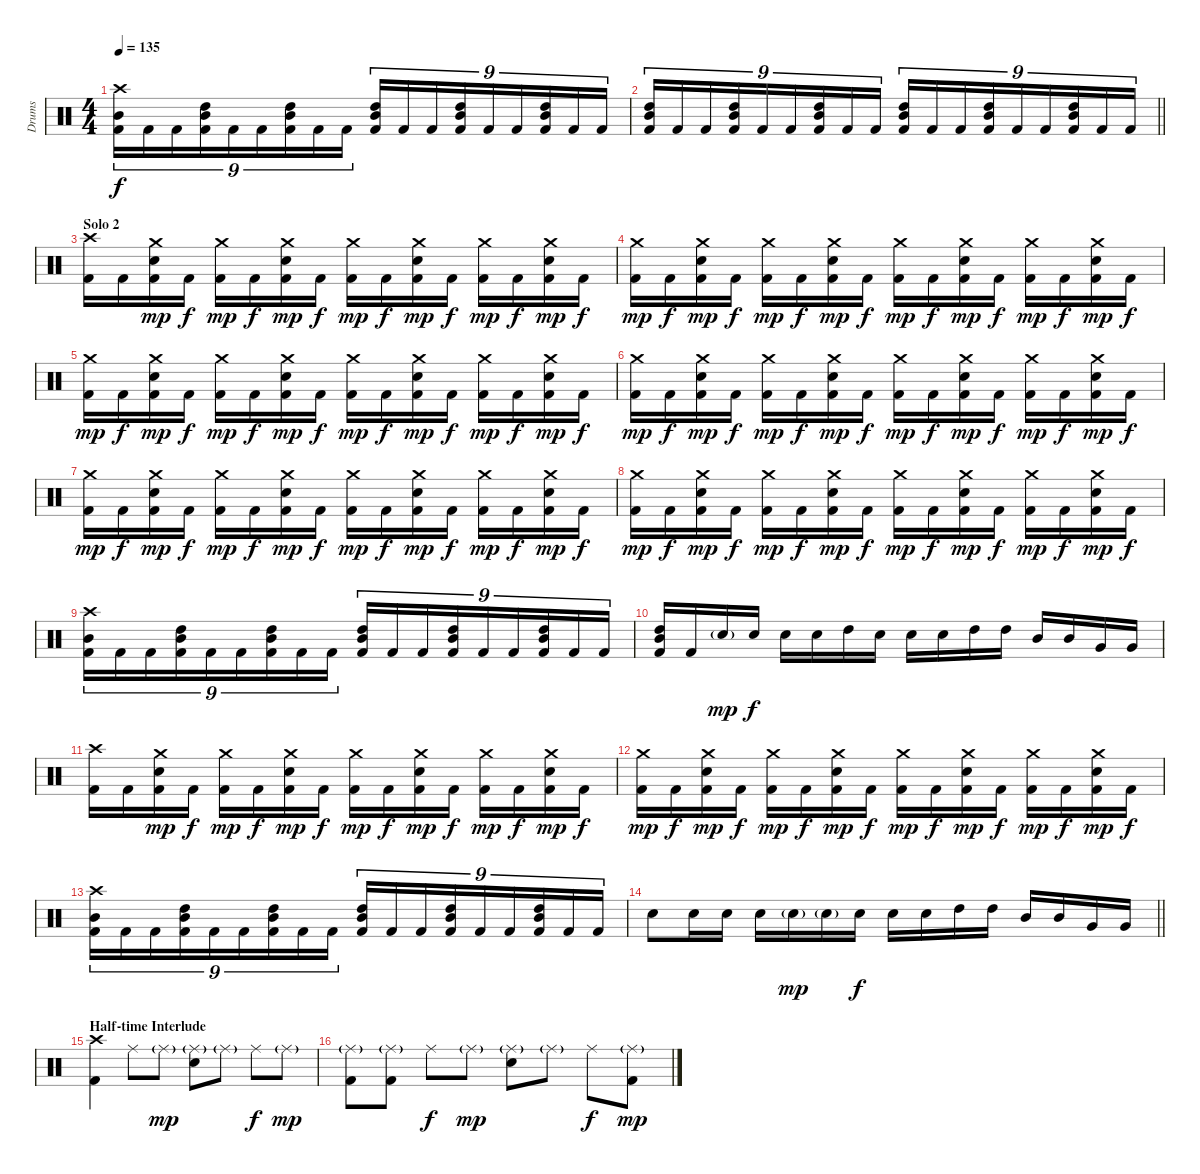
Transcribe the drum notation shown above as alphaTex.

\track ("Drums" "Drums") {instrument percussion}
\staff {score}
\articulation defaults
\ts (4 4)
\section ("" "")
\tempo 135
\clef neutral
\ks c
("Crash high (hit)" "Mid Tom (hit)" "Kick (hit) 2").16{tu (9 8) dy f} "Kick (hit) 2".16{tu (9 8)} "Kick (hit) 2".16{tu (9 8)} ("High Tom (hit)" "Mid Tom (hit)" "Kick (hit) 2").16{tu (9 8)} "Kick (hit) 2".16{tu (9 8)} "Kick (hit) 2".16{tu (9 8)} ("High Tom (hit)" "Mid Tom (hit)" "Kick (hit) 2").16{tu (9 8)} "Kick (hit) 2".16{tu (9 8)} "Kick (hit) 2".16{tu (9 8)} ("High Tom (hit)" "Mid Tom (hit)" "Kick (hit) 2").16{tu (9 8)} "Kick (hit) 2".16{tu (9 8)} "Kick (hit) 2".16{tu (9 8)} ("High Tom (hit)" "Mid Tom (hit)" "Kick (hit) 2").16{tu (9 8)} "Kick (hit) 2".16{tu (9 8)} "Kick (hit) 2".16{tu (9 8)} ("High Tom (hit)" "Mid Tom (hit)" "Kick (hit) 2").16{tu (9 8)} "Kick (hit) 2".16{tu (9 8)} "Kick (hit) 2".16{tu (9 8)} |
\barLineRight lightlight
("High Tom (hit)" "Mid Tom (hit)" "Kick (hit) 2").16{tu (9 8)} "Kick (hit) 2".16{tu (9 8)} "Kick (hit) 2".16{tu (9 8)} ("High Tom (hit)" "Mid Tom (hit)" "Kick (hit) 2").16{tu (9 8)} "Kick (hit) 2".16{tu (9 8)} "Kick (hit) 2".16{tu (9 8)} ("High Tom (hit)" "Mid Tom (hit)" "Kick (hit) 2").16{tu (9 8)} "Kick (hit) 2".16{tu (9 8)} "Kick (hit) 2".16{tu (9 8)} ("High Tom (hit)" "Mid Tom (hit)" "Kick (hit) 2").16{tu (9 8)} "Kick (hit) 2".16{tu (9 8)} "Kick (hit) 2".16{tu (9 8)} ("High Tom (hit)" "Mid Tom (hit)" "Kick (hit) 2").16{tu (9 8)} "Kick (hit) 2".16{tu (9 8)} "Kick (hit) 2".16{tu (9 8)} ("High Tom (hit)" "Mid Tom (hit)" "Kick (hit) 2").16{tu (9 8)} "Kick (hit) 2".16{tu (9 8)} "Kick (hit) 2".16{tu (9 8)} |
\section ("" "Solo 2")
("Crash high (hit)" "Kick (hit) 2").16 "Kick (hit) 2".16 ("Crash medium (hit)" "Snare (hit) 2" "Kick (hit) 2").16{dy mp} "Kick (hit) 2".16{dy f} ("Crash medium (hit)" "Kick (hit) 2").16{dy mp} "Kick (hit) 2".16{dy f} ("Crash medium (hit)" "Snare (hit) 2" "Kick (hit) 2").16{dy mp} "Kick (hit) 2".16{dy f} ("Crash medium (hit)" "Kick (hit) 2").16{dy mp} "Kick (hit) 2".16{dy f} ("Crash medium (hit)" "Snare (hit) 2" "Kick (hit) 2").16{dy mp} "Kick (hit) 2".16{dy f} ("Crash medium (hit)" "Kick (hit) 2").16{dy mp} "Kick (hit) 2".16{dy f} ("Crash medium (hit)" "Snare (hit) 2" "Kick (hit) 2").16{dy mp} "Kick (hit) 2".16{dy f} |
("Crash medium (hit)" "Kick (hit) 2").16{dy mp} "Kick (hit) 2".16{dy f} ("Crash medium (hit)" "Snare (hit) 2" "Kick (hit) 2").16{dy mp} "Kick (hit) 2".16{dy f} ("Crash medium (hit)" "Kick (hit) 2").16{dy mp} "Kick (hit) 2".16{dy f} ("Crash medium (hit)" "Snare (hit) 2" "Kick (hit) 2").16{dy mp} "Kick (hit) 2".16{dy f} ("Crash medium (hit)" "Kick (hit) 2").16{dy mp} "Kick (hit) 2".16{dy f} ("Crash medium (hit)" "Snare (hit) 2" "Kick (hit) 2").16{dy mp} "Kick (hit) 2".16{dy f} ("Crash medium (hit)" "Kick (hit) 2").16{dy mp} "Kick (hit) 2".16{dy f} ("Crash medium (hit)" "Snare (hit) 2" "Kick (hit) 2").16{dy mp} "Kick (hit) 2".16{dy f} |
("Crash medium (hit)" "Kick (hit) 2").16{dy mp} "Kick (hit) 2".16{dy f} ("Crash medium (hit)" "Snare (hit) 2" "Kick (hit) 2").16{dy mp} "Kick (hit) 2".16{dy f} ("Crash medium (hit)" "Kick (hit) 2").16{dy mp} "Kick (hit) 2".16{dy f} ("Crash medium (hit)" "Snare (hit) 2" "Kick (hit) 2").16{dy mp} "Kick (hit) 2".16{dy f} ("Crash medium (hit)" "Kick (hit) 2").16{dy mp} "Kick (hit) 2".16{dy f} ("Crash medium (hit)" "Snare (hit) 2" "Kick (hit) 2").16{dy mp} "Kick (hit) 2".16{dy f} ("Crash medium (hit)" "Kick (hit) 2").16{dy mp} "Kick (hit) 2".16{dy f} ("Crash medium (hit)" "Snare (hit) 2" "Kick (hit) 2").16{dy mp} "Kick (hit) 2".16{dy f} |
("Crash medium (hit)" "Kick (hit) 2").16{dy mp} "Kick (hit) 2".16{dy f} ("Crash medium (hit)" "Snare (hit) 2" "Kick (hit) 2").16{dy mp} "Kick (hit) 2".16{dy f} ("Crash medium (hit)" "Kick (hit) 2").16{dy mp} "Kick (hit) 2".16{dy f} ("Crash medium (hit)" "Snare (hit) 2" "Kick (hit) 2").16{dy mp} "Kick (hit) 2".16{dy f} ("Crash medium (hit)" "Kick (hit) 2").16{dy mp} "Kick (hit) 2".16{dy f} ("Crash medium (hit)" "Snare (hit) 2" "Kick (hit) 2").16{dy mp} "Kick (hit) 2".16{dy f} ("Crash medium (hit)" "Kick (hit) 2").16{dy mp} "Kick (hit) 2".16{dy f} ("Crash medium (hit)" "Snare (hit) 2" "Kick (hit) 2").16{dy mp} "Kick (hit) 2".16{dy f} |
("Crash medium (hit)" "Kick (hit) 2").16{dy mp} "Kick (hit) 2".16{dy f} ("Crash medium (hit)" "Snare (hit) 2" "Kick (hit) 2").16{dy mp} "Kick (hit) 2".16{dy f} ("Crash medium (hit)" "Kick (hit) 2").16{dy mp} "Kick (hit) 2".16{dy f} ("Crash medium (hit)" "Snare (hit) 2" "Kick (hit) 2").16{dy mp} "Kick (hit) 2".16{dy f} ("Crash medium (hit)" "Kick (hit) 2").16{dy mp} "Kick (hit) 2".16{dy f} ("Crash medium (hit)" "Snare (hit) 2" "Kick (hit) 2").16{dy mp} "Kick (hit) 2".16{dy f} ("Crash medium (hit)" "Kick (hit) 2").16{dy mp} "Kick (hit) 2".16{dy f} ("Crash medium (hit)" "Snare (hit) 2" "Kick (hit) 2").16{dy mp} "Kick (hit) 2".16{dy f} |
("Crash medium (hit)" "Kick (hit) 2").16{dy mp} "Kick (hit) 2".16{dy f} ("Crash medium (hit)" "Snare (hit) 2" "Kick (hit) 2").16{dy mp} "Kick (hit) 2".16{dy f} ("Crash medium (hit)" "Kick (hit) 2").16{dy mp} "Kick (hit) 2".16{dy f} ("Crash medium (hit)" "Snare (hit) 2" "Kick (hit) 2").16{dy mp} "Kick (hit) 2".16{dy f} ("Crash medium (hit)" "Kick (hit) 2").16{dy mp} "Kick (hit) 2".16{dy f} ("Crash medium (hit)" "Snare (hit) 2" "Kick (hit) 2").16{dy mp} "Kick (hit) 2".16{dy f} ("Crash medium (hit)" "Kick (hit) 2").16{dy mp} "Kick (hit) 2".16{dy f} ("Crash medium (hit)" "Snare (hit) 2" "Kick (hit) 2").16{dy mp} "Kick (hit) 2".16{dy f} |
("Crash high (hit)" "Mid Tom (hit)" "Kick (hit) 2").16{tu (9 8)} "Kick (hit) 2".16{tu (9 8)} "Kick (hit) 2".16{tu (9 8)} ("High Tom (hit)" "Mid Tom (hit)" "Kick (hit) 2").16{tu (9 8)} "Kick (hit) 2".16{tu (9 8)} "Kick (hit) 2".16{tu (9 8)} ("High Tom (hit)" "Mid Tom (hit)" "Kick (hit) 2").16{tu (9 8)} "Kick (hit) 2".16{tu (9 8)} "Kick (hit) 2".16{tu (9 8)} ("High Tom (hit)" "Mid Tom (hit)" "Kick (hit) 2").16{tu (9 8)} "Kick (hit) 2".16{tu (9 8)} "Kick (hit) 2".16{tu (9 8)} ("High Tom (hit)" "Mid Tom (hit)" "Kick (hit) 2").16{tu (9 8)} "Kick (hit) 2".16{tu (9 8)} "Kick (hit) 2".16{tu (9 8)} ("High Tom (hit)" "Mid Tom (hit)" "Kick (hit) 2").16{tu (9 8)} "Kick (hit) 2".16{tu (9 8)} "Kick (hit) 2".16{tu (9 8)} |
("High Tom (hit)" "Mid Tom (hit)" "Kick (hit) 2").16 "Kick (hit) 2".16 "Snare (hit) 2"{g}.16{dy mp} "Snare (hit) 2".16{dy f} "Snare (hit) 2".16 "Snare (hit) 2".16 "High Tom (hit)".16 "Snare (hit) 2".16 "Snare (hit) 2".16 "Snare (hit) 2".16 "High Tom (hit)".16 "High Tom (hit)".16 "Mid Tom (hit)".16 "Mid Tom (hit)".16 "Very Low Tom (hit)".16 "Very Low Tom (hit)".16 |
("Crash high (hit)" "Kick (hit) 2").16 "Kick (hit) 2".16 ("Crash medium (hit)" "Snare (hit) 2" "Kick (hit) 2").16{dy mp} "Kick (hit) 2".16{dy f} ("Crash medium (hit)" "Kick (hit) 2").16{dy mp} "Kick (hit) 2".16{dy f} ("Crash medium (hit)" "Snare (hit) 2" "Kick (hit) 2").16{dy mp} "Kick (hit) 2".16{dy f} ("Crash medium (hit)" "Kick (hit) 2").16{dy mp} "Kick (hit) 2".16{dy f} ("Crash medium (hit)" "Snare (hit) 2" "Kick (hit) 2").16{dy mp} "Kick (hit) 2".16{dy f} ("Crash medium (hit)" "Kick (hit) 2").16{dy mp} "Kick (hit) 2".16{dy f} ("Crash medium (hit)" "Snare (hit) 2" "Kick (hit) 2").16{dy mp} "Kick (hit) 2".16{dy f} |
("Crash medium (hit)" "Kick (hit) 2").16{dy mp} "Kick (hit) 2".16{dy f} ("Crash medium (hit)" "Snare (hit) 2" "Kick (hit) 2").16{dy mp} "Kick (hit) 2".16{dy f} ("Crash medium (hit)" "Kick (hit) 2").16{dy mp} "Kick (hit) 2".16{dy f} ("Crash medium (hit)" "Snare (hit) 2" "Kick (hit) 2").16{dy mp} "Kick (hit) 2".16{dy f} ("Crash medium (hit)" "Kick (hit) 2").16{dy mp} "Kick (hit) 2".16{dy f} ("Crash medium (hit)" "Snare (hit) 2" "Kick (hit) 2").16{dy mp} "Kick (hit) 2".16{dy f} ("Crash medium (hit)" "Kick (hit) 2").16{dy mp} "Kick (hit) 2".16{dy f} ("Crash medium (hit)" "Snare (hit) 2" "Kick (hit) 2").16{dy mp} "Kick (hit) 2".16{dy f} |
("Crash high (hit)" "Mid Tom (hit)" "Kick (hit) 2").16{tu (9 8)} "Kick (hit) 2".16{tu (9 8)} "Kick (hit) 2".16{tu (9 8)} ("High Tom (hit)" "Mid Tom (hit)" "Kick (hit) 2").16{tu (9 8)} "Kick (hit) 2".16{tu (9 8)} "Kick (hit) 2".16{tu (9 8)} ("High Tom (hit)" "Mid Tom (hit)" "Kick (hit) 2").16{tu (9 8)} "Kick (hit) 2".16{tu (9 8)} "Kick (hit) 2".16{tu (9 8)} ("High Tom (hit)" "Mid Tom (hit)" "Kick (hit) 2").16{tu (9 8)} "Kick (hit) 2".16{tu (9 8)} "Kick (hit) 2".16{tu (9 8)} ("High Tom (hit)" "Mid Tom (hit)" "Kick (hit) 2").16{tu (9 8)} "Kick (hit) 2".16{tu (9 8)} "Kick (hit) 2".16{tu (9 8)} ("High Tom (hit)" "Mid Tom (hit)" "Kick (hit) 2").16{tu (9 8)} "Kick (hit) 2".16{tu (9 8)} "Kick (hit) 2".16{tu (9 8)} |
\barLineRight lightlight "Snare (hit) 2".8 "Snare (hit) 2".16 "Snare (hit) 2".16 "Snare (hit) 2".16 "Snare (hit) 2"{g}.16{dy mp} "Snare (hit) 2"{g}.16 "Snare (hit) 2".16{dy f} "Snare (hit) 2".16 "Snare (hit) 2".16 "High Tom (hit)".16 "High Tom (hit)".16 "Mid Tom (hit)".16 "Mid Tom (hit)".16 "Very Low Tom (hit)".16 "Very Low Tom (hit)".16
|
\section ("" "Half-time Interlude")
("Crash high (hit)" "Kick (hit) 2").4 "Ride (middle)".8 "Ride (middle)"{g}.8{dy mp} ("Ride (middle)"{g} "Snare (hit) 2").8 "Ride (middle)"{g}.8 "Ride (middle)".8{dy f} "Ride (middle)"{g}.8{dy mp} |
("Ride (middle)"{g} "Kick (hit) 2").8 ("Ride (middle)"{g} "Kick (hit) 2").8 "Ride (middle)".8{dy f} "Ride (middle)"{g}.8{dy mp} ("Ride (middle)"{g} "Snare (hit) 2").8 "Ride (middle)"{g}.8 "Ride (middle)".8{dy f} ("Ride (middle)"{g} "Kick (hit) 2").8{dy mp}
